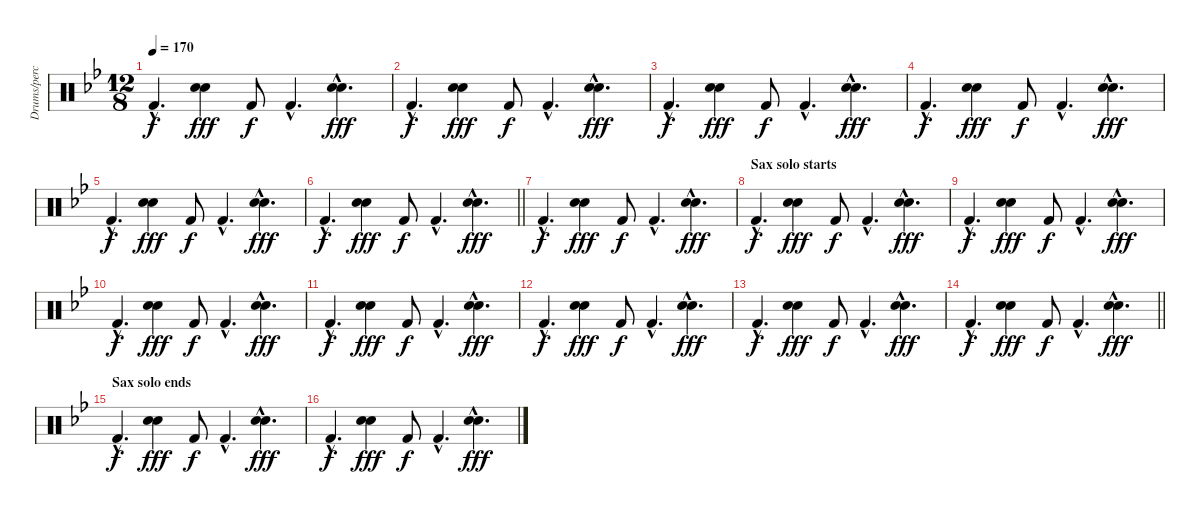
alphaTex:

\track ("Drums/percussion" "Drums/perc") {instrument percussion}
\staff {score}
\articulation defaults
\ts (12 8)
\tempo 170
\clef neutral
\ks bb "Kick (hit) 2"{hac}.4{d dy f}
("Hand Clap (hit)" "Snare (hit) 2").4{dy fff} "Kick (hit) 2".8{dy f} "Kick (hit) 2"{hac}.4{d} ("Hand Clap (hit)"{hac} "Snare (hit) 2"{hac}).4{d dy fff} |
"Kick (hit) 2"{hac}.4{d dy f} ("Hand Clap (hit)" "Snare (hit) 2").4{dy fff} "Kick (hit) 2".8{dy f} "Kick (hit) 2"{hac}.4{d} ("Hand Clap (hit)"{hac} "Snare (hit) 2"{hac}).4{d dy fff} |
"Kick (hit) 2"{hac}.4{d dy f} ("Hand Clap (hit)" "Snare (hit) 2").4{dy fff} "Kick (hit) 2".8{dy f} "Kick (hit) 2"{hac}.4{d} ("Hand Clap (hit)"{hac} "Snare (hit) 2"{hac}).4{d dy fff} |
"Kick (hit) 2"{hac}.4{d dy f} ("Hand Clap (hit)" "Snare (hit) 2").4{dy fff} "Kick (hit) 2".8{dy f} "Kick (hit) 2"{hac}.4{d} ("Hand Clap (hit)"{hac} "Snare (hit) 2"{hac}).4{d dy fff} |
"Kick (hit) 2"{hac}.4{d dy f} ("Hand Clap (hit)" "Snare (hit) 2").4{dy fff} "Kick (hit) 2".8{dy f} "Kick (hit) 2"{hac}.4{d} ("Hand Clap (hit)"{hac} "Snare (hit) 2"{hac}).4{d dy fff} |
\barLineRight lightlight "Kick (hit) 2"{hac}.4{d dy f}
("Hand Clap (hit)" "Snare (hit) 2").4{dy fff} "Kick (hit) 2".8{dy f} "Kick (hit) 2"{hac}.4{d} ("Hand Clap (hit)"{hac} "Snare (hit) 2"{hac}).4{d dy fff} |
"Kick (hit) 2"{hac}.4{d dy f} ("Hand Clap (hit)" "Snare (hit) 2").4{dy fff} "Kick (hit) 2".8{dy f} "Kick (hit) 2"{hac}.4{d} ("Hand Clap (hit)"{hac} "Snare (hit) 2"{hac}).4{d dy fff} |
\section ("" "Sax solo starts")
"Kick (hit) 2"{hac}.4{d dy f} ("Hand Clap (hit)" "Snare (hit) 2").4{dy fff} "Kick (hit) 2".8{dy f} "Kick (hit) 2"{hac}.4{d} ("Hand Clap (hit)"{hac} "Snare (hit) 2"{hac}).4{d dy fff} |
"Kick (hit) 2"{hac}.4{d dy f} ("Hand Clap (hit)" "Snare (hit) 2").4{dy fff} "Kick (hit) 2".8{dy f} "Kick (hit) 2"{hac}.4{d} ("Hand Clap (hit)"{hac} "Snare (hit) 2"{hac}).4{d dy fff} |
"Kick (hit) 2"{hac}.4{d dy f} ("Hand Clap (hit)" "Snare (hit) 2").4{dy fff} "Kick (hit) 2".8{dy f} "Kick (hit) 2"{hac}.4{d} ("Hand Clap (hit)"{hac} "Snare (hit) 2"{hac}).4{d dy fff} |
"Kick (hit) 2"{hac}.4{d dy f} ("Hand Clap (hit)" "Snare (hit) 2").4{dy fff} "Kick (hit) 2".8{dy f} "Kick (hit) 2"{hac}.4{d} ("Hand Clap (hit)"{hac} "Snare (hit) 2"{hac}).4{d dy fff} |
"Kick (hit) 2"{hac}.4{d dy f} ("Hand Clap (hit)" "Snare (hit) 2").4{dy fff} "Kick (hit) 2".8{dy f} "Kick (hit) 2"{hac}.4{d} ("Hand Clap (hit)"{hac} "Snare (hit) 2"{hac}).4{d dy fff} |
"Kick (hit) 2"{hac}.4{d dy f} ("Hand Clap (hit)" "Snare (hit) 2").4{dy fff} "Kick (hit) 2".8{dy f} "Kick (hit) 2"{hac}.4{d} ("Hand Clap (hit)"{hac} "Snare (hit) 2"{hac}).4{d dy fff} |
\barLineRight lightlight "Kick (hit) 2"{hac}.4{d dy f}
("Hand Clap (hit)" "Snare (hit) 2").4{dy fff} "Kick (hit) 2".8{dy f} "Kick (hit) 2"{hac}.4{d} ("Hand Clap (hit)"{hac} "Snare (hit) 2"{hac}).4{d dy fff} |
\section ("" "Sax solo ends")
"Kick (hit) 2"{hac}.4{d dy f} ("Hand Clap (hit)" "Snare (hit) 2").4{dy fff} "Kick (hit) 2".8{dy f} "Kick (hit) 2"{hac}.4{d} ("Hand Clap (hit)"{hac} "Snare (hit) 2"{hac}).4{d dy fff} |
"Kick (hit) 2"{hac}.4{d dy f} ("Hand Clap (hit)" "Snare (hit) 2").4{dy fff} "Kick (hit) 2".8{dy f} "Kick (hit) 2"{hac}.4{d} ("Hand Clap (hit)"{hac} "Snare (hit) 2"{hac}).4{d dy fff}
